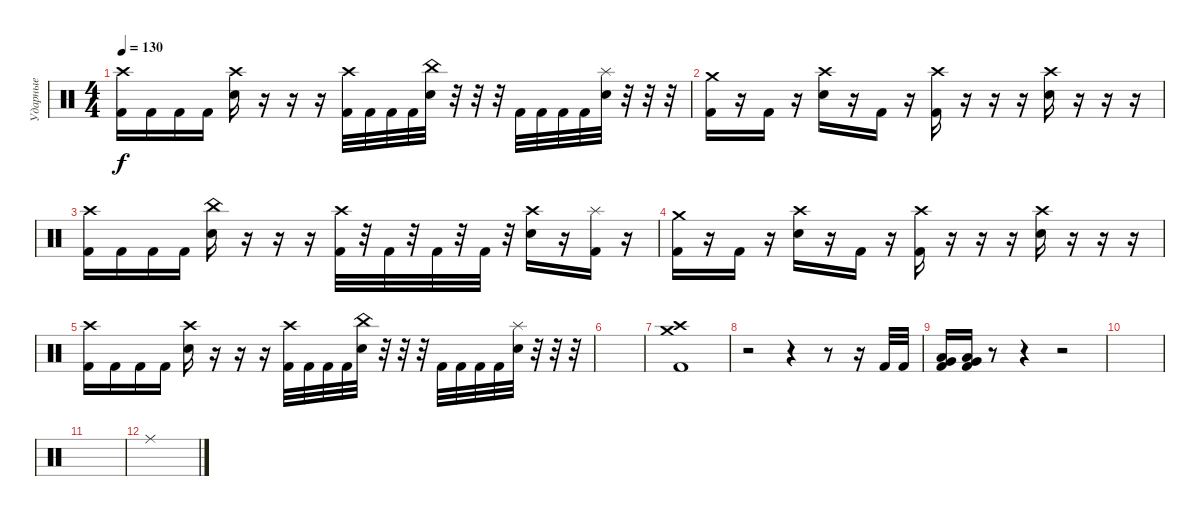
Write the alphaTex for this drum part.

\track ("Ударные" "Ударные") {instrument percussion}
\staff {score}
\articulation defaults
\ts (4 4)
\tempo 130
\clef neutral
\ks c
("Kick (hit) 2" "Crash high (hit)").16{dy f} "Kick (hit) 2".16 "Kick (hit) 2".16 "Kick (hit) 2".16 ("Electric Snare (hit)" "Crash high (hit)").16 r.16 r.16 r.16 ("Kick (hit) 2" "Crash high (hit)").32 "Kick (hit) 2".32 "Kick (hit) 2".32 "Kick (hit) 2".32 ("Electric Snare (hit)" "China (hit)").32 r.32 r.32 r.32 "Kick (hit) 2".32 "Kick (hit) 2".32 "Kick (hit) 2".32 "Kick (hit) 2".32 ("Electric Snare (hit)" "Splash (hit)").32 r.32 r.32 r.32 |
("Kick (hit) 2" "Crash medium (hit)").16 r.16 "Kick (hit) 2".16 r.16 ("Electric Snare (hit)" "Crash high (hit)").16 r.16 "Kick (hit) 2".16 r.16 ("Kick (hit) 2" "Crash high (hit)").16 r.16 r.16 r.16 ("Electric Snare (hit)" "Crash high (hit)").16 r.16 r.16 r.16 |
("Kick (hit) 2" "Crash high (hit)").16 "Kick (hit) 2".16 "Kick (hit) 2".16 "Kick (hit) 2".16 ("Electric Snare (hit)" "China (hit)").16 r.16 r.16 r.16 ("Kick (hit) 2" "Crash high (hit)").32 r.32 "Kick (hit) 2".32 r.32 "Kick (hit) 2".32 r.32 "Kick (hit) 2".32 r.32 ("Electric Snare (hit)" "Crash high (hit)").16 r.16 ("Kick (hit) 2" "Splash (hit)").16 r.16 |
("Kick (hit) 2" "Crash medium (hit)").16 r.16 "Kick (hit) 2".16 r.16 ("Electric Snare (hit)" "Crash high (hit)").16 r.16 "Kick (hit) 2".16 r.16 ("Kick (hit) 2" "Crash high (hit)").16 r.16 r.16 r.16 ("Electric Snare (hit)" "Crash high (hit)").16 r.16 r.16 r.16 |
("Kick (hit) 2" "Crash high (hit)").16 "Kick (hit) 2".16 "Kick (hit) 2".16 "Kick (hit) 2".16 ("Electric Snare (hit)" "Crash high (hit)").16 r.16 r.16 r.16 ("Kick (hit) 2" "Crash high (hit)").32 "Kick (hit) 2".32 "Kick (hit) 2".32 "Kick (hit) 2".32 ("Electric Snare (hit)" "China (hit)").32 r.32 r.32 r.32 "Kick (hit) 2".32 "Kick (hit) 2".32 "Kick (hit) 2".32 "Kick (hit) 2".32 ("Electric Snare (hit)" "Splash (hit)").32 r.32 r.32 r.32 |
|
("Kick (hit) 2" "Crash high (hit)" "Crash medium (hit)").1 |
r.2 r.4 r.8 r.16 "Kick (hit) 2".32 "Kick (hit) 2".32 |
("Kick (hit) 2" "Low Floor Tom (hit)" "Very Low Tom (hit)").16 ("Kick (hit) 2" "Low Floor Tom (hit)" "Very Low Tom (hit)").16 r.8 r.4 r.2 |
|
|
"Ride (middle)".1
